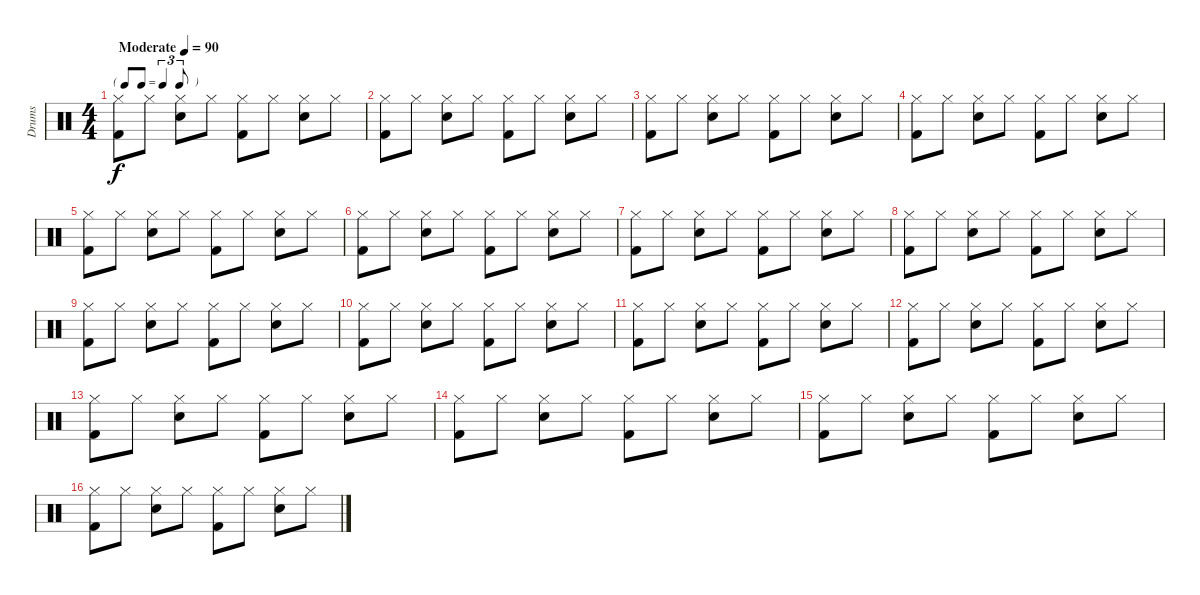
\track ("Drums" "Drums") {instrument percussion}
\staff {score}
\articulation defaults
\ts (4 4)
\tf triplet8th
\tempo (90 "Moderate")
\clef neutral
\ks c
("Kick (hit) 2" "Hi-Hat (closed)").8{dy f} "Hi-Hat (closed)".8 ("Electric Snare (hit)" "Hi-Hat (closed)").8 "Hi-Hat (closed)".8 ("Kick (hit) 2" "Hi-Hat (closed)").8 "Hi-Hat (closed)".8 ("Electric Snare (hit)" "Hi-Hat (closed)").8 "Hi-Hat (closed)".8 |
("Kick (hit) 2" "Hi-Hat (closed)").8 "Hi-Hat (closed)".8 ("Electric Snare (hit)" "Hi-Hat (closed)").8 "Hi-Hat (closed)".8 ("Kick (hit) 2" "Hi-Hat (closed)").8 "Hi-Hat (closed)".8 ("Electric Snare (hit)" "Hi-Hat (closed)").8 "Hi-Hat (closed)".8 |
("Kick (hit) 2" "Hi-Hat (closed)").8 "Hi-Hat (closed)".8 ("Electric Snare (hit)" "Hi-Hat (closed)").8 "Hi-Hat (closed)".8 ("Kick (hit) 2" "Hi-Hat (closed)").8 "Hi-Hat (closed)".8 ("Electric Snare (hit)" "Hi-Hat (closed)").8 "Hi-Hat (closed)".8 |
("Kick (hit) 2" "Hi-Hat (closed)").8 "Hi-Hat (closed)".8 ("Electric Snare (hit)" "Hi-Hat (closed)").8 "Hi-Hat (closed)".8 ("Kick (hit) 2" "Hi-Hat (closed)").8 "Hi-Hat (closed)".8 ("Electric Snare (hit)" "Hi-Hat (closed)").8 "Hi-Hat (closed)".8 |
("Kick (hit) 2" "Hi-Hat (closed)").8 "Hi-Hat (closed)".8 ("Electric Snare (hit)" "Hi-Hat (closed)").8 "Hi-Hat (closed)".8 ("Kick (hit) 2" "Hi-Hat (closed)").8 "Hi-Hat (closed)".8 ("Electric Snare (hit)" "Hi-Hat (closed)").8 "Hi-Hat (closed)".8 |
("Kick (hit) 2" "Hi-Hat (closed)").8 "Hi-Hat (closed)".8 ("Electric Snare (hit)" "Hi-Hat (closed)").8 "Hi-Hat (closed)".8 ("Kick (hit) 2" "Hi-Hat (closed)").8 "Hi-Hat (closed)".8 ("Electric Snare (hit)" "Hi-Hat (closed)").8 "Hi-Hat (closed)".8 |
("Kick (hit) 2" "Hi-Hat (closed)").8 "Hi-Hat (closed)".8 ("Electric Snare (hit)" "Hi-Hat (closed)").8 "Hi-Hat (closed)".8 ("Kick (hit) 2" "Hi-Hat (closed)").8 "Hi-Hat (closed)".8 ("Electric Snare (hit)" "Hi-Hat (closed)").8 "Hi-Hat (closed)".8 |
("Kick (hit) 2" "Hi-Hat (closed)").8 "Hi-Hat (closed)".8 ("Electric Snare (hit)" "Hi-Hat (closed)").8 "Hi-Hat (closed)".8 ("Kick (hit) 2" "Hi-Hat (closed)").8 "Hi-Hat (closed)".8 ("Electric Snare (hit)" "Hi-Hat (closed)").8 "Hi-Hat (closed)".8 |
("Kick (hit) 2" "Hi-Hat (closed)").8 "Hi-Hat (closed)".8 ("Electric Snare (hit)" "Hi-Hat (closed)").8 "Hi-Hat (closed)".8 ("Kick (hit) 2" "Hi-Hat (closed)").8 "Hi-Hat (closed)".8 ("Electric Snare (hit)" "Hi-Hat (closed)").8 "Hi-Hat (closed)".8 |
("Kick (hit) 2" "Hi-Hat (closed)").8 "Hi-Hat (closed)".8 ("Electric Snare (hit)" "Hi-Hat (closed)").8 "Hi-Hat (closed)".8 ("Kick (hit) 2" "Hi-Hat (closed)").8 "Hi-Hat (closed)".8 ("Electric Snare (hit)" "Hi-Hat (closed)").8 "Hi-Hat (closed)".8 |
("Kick (hit) 2" "Hi-Hat (closed)").8 "Hi-Hat (closed)".8 ("Electric Snare (hit)" "Hi-Hat (closed)").8 "Hi-Hat (closed)".8 ("Kick (hit) 2" "Hi-Hat (closed)").8 "Hi-Hat (closed)".8 ("Electric Snare (hit)" "Hi-Hat (closed)").8 "Hi-Hat (closed)".8 |
("Kick (hit) 2" "Hi-Hat (closed)").8 "Hi-Hat (closed)".8 ("Electric Snare (hit)" "Hi-Hat (closed)").8 "Hi-Hat (closed)".8 ("Kick (hit) 2" "Hi-Hat (closed)").8 "Hi-Hat (closed)".8 ("Electric Snare (hit)" "Hi-Hat (closed)").8 "Hi-Hat (closed)".8 |
("Kick (hit) 2" "Hi-Hat (closed)").8 "Hi-Hat (closed)".8 ("Electric Snare (hit)" "Hi-Hat (closed)").8 "Hi-Hat (closed)".8 ("Kick (hit) 2" "Hi-Hat (closed)").8 "Hi-Hat (closed)".8 ("Electric Snare (hit)" "Hi-Hat (closed)").8 "Hi-Hat (closed)".8 |
("Kick (hit) 2" "Hi-Hat (closed)").8 "Hi-Hat (closed)".8 ("Electric Snare (hit)" "Hi-Hat (closed)").8 "Hi-Hat (closed)".8 ("Kick (hit) 2" "Hi-Hat (closed)").8 "Hi-Hat (closed)".8 ("Electric Snare (hit)" "Hi-Hat (closed)").8 "Hi-Hat (closed)".8 |
("Kick (hit) 2" "Hi-Hat (closed)").8 "Hi-Hat (closed)".8 ("Electric Snare (hit)" "Hi-Hat (closed)").8 "Hi-Hat (closed)".8 ("Kick (hit) 2" "Hi-Hat (closed)").8 "Hi-Hat (closed)".8 ("Electric Snare (hit)" "Hi-Hat (closed)").8 "Hi-Hat (closed)".8 |
("Kick (hit) 2" "Hi-Hat (closed)").8 "Hi-Hat (closed)".8 ("Electric Snare (hit)" "Hi-Hat (closed)").8 "Hi-Hat (closed)".8 ("Kick (hit) 2" "Hi-Hat (closed)").8 "Hi-Hat (closed)".8 ("Electric Snare (hit)" "Hi-Hat (closed)").8 "Hi-Hat (closed)".8
